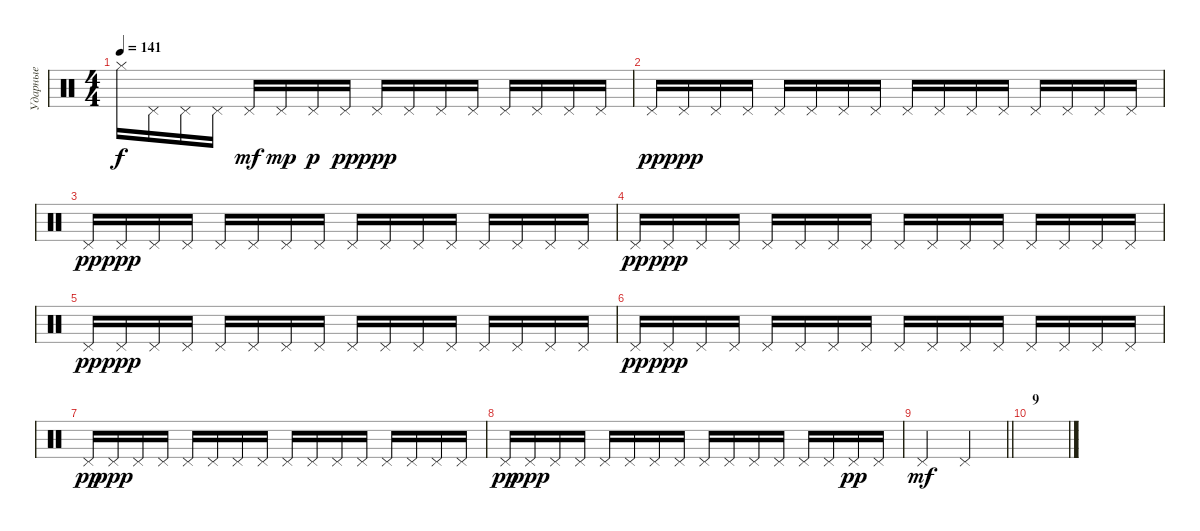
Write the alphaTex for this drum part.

\track ("Ударные" "Ударные") {instrument percussion}
\staff {score}
\articulation defaults
\ts (4 4)
\tempo 141
\clef neutral
\ks c "Hi-Hat (closed)".16{dy f} "Pedal Hi-Hat (hit)".16 "Pedal Hi-Hat (hit)".16 "Pedal Hi-Hat (hit)".16 "Pedal Hi-Hat (hit)".16{dy mf} "Pedal Hi-Hat (hit)".16{dy mp} "Pedal Hi-Hat (hit)".16{dy p} "Pedal Hi-Hat (hit)".16{dy pp} "Pedal Hi-Hat (hit)".16{dy ppp} "Pedal Hi-Hat (hit)".16 "Pedal Hi-Hat (hit)".16 "Pedal Hi-Hat (hit)".16 "Pedal Hi-Hat (hit)".16 "Pedal Hi-Hat (hit)".16 "Pedal Hi-Hat (hit)".16 "Pedal Hi-Hat (hit)".16
|
"Pedal Hi-Hat (hit)".16{dy pp} "Pedal Hi-Hat (hit)".16{dy ppp} "Pedal Hi-Hat (hit)".16 "Pedal Hi-Hat (hit)".16 "Pedal Hi-Hat (hit)".16 "Pedal Hi-Hat (hit)".16 "Pedal Hi-Hat (hit)".16 "Pedal Hi-Hat (hit)".16 "Pedal Hi-Hat (hit)".16 "Pedal Hi-Hat (hit)".16 "Pedal Hi-Hat (hit)".16 "Pedal Hi-Hat (hit)".16 "Pedal Hi-Hat (hit)".16 "Pedal Hi-Hat (hit)".16 "Pedal Hi-Hat (hit)".16 "Pedal Hi-Hat (hit)".16 |
"Pedal Hi-Hat (hit)".16{dy pp} "Pedal Hi-Hat (hit)".16{dy ppp} "Pedal Hi-Hat (hit)".16 "Pedal Hi-Hat (hit)".16 "Pedal Hi-Hat (hit)".16 "Pedal Hi-Hat (hit)".16 "Pedal Hi-Hat (hit)".16 "Pedal Hi-Hat (hit)".16 "Pedal Hi-Hat (hit)".16 "Pedal Hi-Hat (hit)".16 "Pedal Hi-Hat (hit)".16 "Pedal Hi-Hat (hit)".16 "Pedal Hi-Hat (hit)".16 "Pedal Hi-Hat (hit)".16 "Pedal Hi-Hat (hit)".16 "Pedal Hi-Hat (hit)".16 |
"Pedal Hi-Hat (hit)".16{dy pp} "Pedal Hi-Hat (hit)".16{dy ppp} "Pedal Hi-Hat (hit)".16 "Pedal Hi-Hat (hit)".16 "Pedal Hi-Hat (hit)".16 "Pedal Hi-Hat (hit)".16 "Pedal Hi-Hat (hit)".16 "Pedal Hi-Hat (hit)".16 "Pedal Hi-Hat (hit)".16 "Pedal Hi-Hat (hit)".16 "Pedal Hi-Hat (hit)".16 "Pedal Hi-Hat (hit)".16 "Pedal Hi-Hat (hit)".16 "Pedal Hi-Hat (hit)".16 "Pedal Hi-Hat (hit)".16 "Pedal Hi-Hat (hit)".16 |
"Pedal Hi-Hat (hit)".16{dy pp} "Pedal Hi-Hat (hit)".16{dy ppp} "Pedal Hi-Hat (hit)".16 "Pedal Hi-Hat (hit)".16 "Pedal Hi-Hat (hit)".16 "Pedal Hi-Hat (hit)".16 "Pedal Hi-Hat (hit)".16 "Pedal Hi-Hat (hit)".16 "Pedal Hi-Hat (hit)".16 "Pedal Hi-Hat (hit)".16 "Pedal Hi-Hat (hit)".16 "Pedal Hi-Hat (hit)".16 "Pedal Hi-Hat (hit)".16 "Pedal Hi-Hat (hit)".16 "Pedal Hi-Hat (hit)".16 "Pedal Hi-Hat (hit)".16 |
"Pedal Hi-Hat (hit)".16{dy pp} "Pedal Hi-Hat (hit)".16{dy ppp} "Pedal Hi-Hat (hit)".16 "Pedal Hi-Hat (hit)".16 "Pedal Hi-Hat (hit)".16 "Pedal Hi-Hat (hit)".16 "Pedal Hi-Hat (hit)".16 "Pedal Hi-Hat (hit)".16 "Pedal Hi-Hat (hit)".16 "Pedal Hi-Hat (hit)".16 "Pedal Hi-Hat (hit)".16 "Pedal Hi-Hat (hit)".16 "Pedal Hi-Hat (hit)".16 "Pedal Hi-Hat (hit)".16 "Pedal Hi-Hat (hit)".16 "Pedal Hi-Hat (hit)".16 |
"Pedal Hi-Hat (hit)".16{dy pp} "Pedal Hi-Hat (hit)".16{dy ppp} "Pedal Hi-Hat (hit)".16 "Pedal Hi-Hat (hit)".16 "Pedal Hi-Hat (hit)".16 "Pedal Hi-Hat (hit)".16 "Pedal Hi-Hat (hit)".16 "Pedal Hi-Hat (hit)".16 "Pedal Hi-Hat (hit)".16 "Pedal Hi-Hat (hit)".16 "Pedal Hi-Hat (hit)".16 "Pedal Hi-Hat (hit)".16 "Pedal Hi-Hat (hit)".16 "Pedal Hi-Hat (hit)".16 "Pedal Hi-Hat (hit)".16 "Pedal Hi-Hat (hit)".16 |
"Pedal Hi-Hat (hit)".16{dy pp} "Pedal Hi-Hat (hit)".16{dy ppp} "Pedal Hi-Hat (hit)".16 "Pedal Hi-Hat (hit)".16 "Pedal Hi-Hat (hit)".16 "Pedal Hi-Hat (hit)".16 "Pedal Hi-Hat (hit)".16 "Pedal Hi-Hat (hit)".16 "Pedal Hi-Hat (hit)".16 "Pedal Hi-Hat (hit)".16 "Pedal Hi-Hat (hit)".16 "Pedal Hi-Hat (hit)".16 "Pedal Hi-Hat (hit)".16 "Pedal Hi-Hat (hit)".16 "Pedal Hi-Hat (hit)".16{dy pp} "Pedal Hi-Hat (hit)".16 |
\barLineRight lightlight "Pedal Hi-Hat (hit)".2{dy mf} "Pedal Hi-Hat (hit)".2
|
\section ("" "9")
